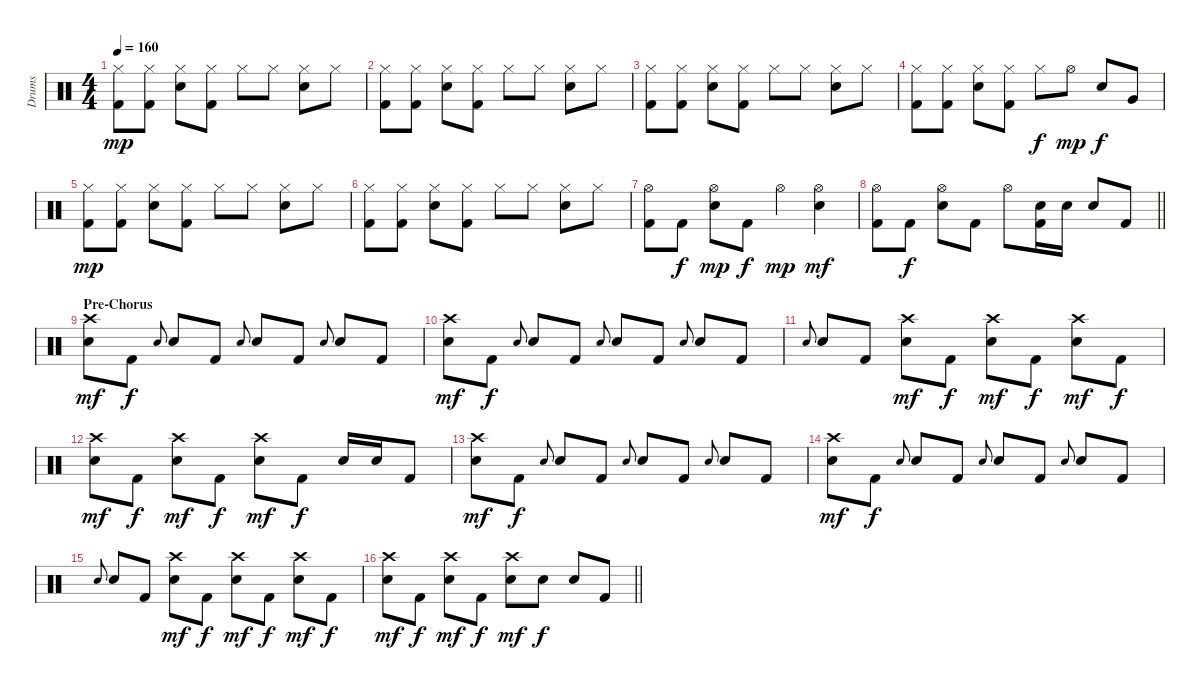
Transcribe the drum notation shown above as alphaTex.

\track ("Drums" "Drums") {instrument percussion}
\staff {score}
\articulation defaults
\ts (4 4)
\tempo 160
\clef neutral
\ks c
("Hi-Hat (closed)" "Kick (hit) 2").8{dy mp} ("Hi-Hat (closed)" "Kick (hit) 2").8 ("Hi-Hat (closed)" "Electric Snare (hit)").8 ("Hi-Hat (closed)" "Kick (hit) 2").8 "Hi-Hat (closed)".8 "Hi-Hat (closed)".8 ("Hi-Hat (closed)" "Electric Snare (hit)").8 "Hi-Hat (closed)".8 |
("Hi-Hat (closed)" "Kick (hit) 2").8 ("Hi-Hat (closed)" "Kick (hit) 2").8 ("Hi-Hat (closed)" "Electric Snare (hit)").8 ("Hi-Hat (closed)" "Kick (hit) 2").8 "Hi-Hat (closed)".8 "Hi-Hat (closed)".8 ("Hi-Hat (closed)" "Electric Snare (hit)").8 "Hi-Hat (closed)".8 |
("Hi-Hat (closed)" "Kick (hit) 2").8 ("Hi-Hat (closed)" "Kick (hit) 2").8 ("Hi-Hat (closed)" "Electric Snare (hit)").8 ("Hi-Hat (closed)" "Kick (hit) 2").8 "Hi-Hat (closed)".8 "Hi-Hat (closed)".8 ("Hi-Hat (closed)" "Electric Snare (hit)").8 "Hi-Hat (closed)".8 |
("Hi-Hat (closed)" "Kick (hit) 2").8 ("Hi-Hat (closed)" "Kick (hit) 2").8 ("Hi-Hat (closed)" "Electric Snare (hit)").8 ("Hi-Hat (closed)" "Kick (hit) 2").8 "Hi-Hat (closed)".8{dy f} "Hi-Hat (open)".8{dy mp} "Electric Snare (hit)".8{dy f} "Very Low Tom (hit)".8 |
("Hi-Hat (closed)" "Kick (hit) 2").8{dy mp} ("Hi-Hat (closed)" "Kick (hit) 2").8 ("Hi-Hat (closed)" "Electric Snare (hit)").8 ("Hi-Hat (closed)" "Kick (hit) 2").8 "Hi-Hat (closed)".8 "Hi-Hat (closed)".8 ("Hi-Hat (closed)" "Electric Snare (hit)").8 "Hi-Hat (closed)".8 |
("Hi-Hat (closed)" "Kick (hit) 2").8 ("Hi-Hat (closed)" "Kick (hit) 2").8 ("Hi-Hat (closed)" "Electric Snare (hit)").8 ("Hi-Hat (closed)" "Kick (hit) 2").8 "Hi-Hat (closed)".8 "Hi-Hat (closed)".8 ("Hi-Hat (closed)" "Electric Snare (hit)").8 "Hi-Hat (closed)".8 |
("Hi-Hat (open)" "Kick (hit) 2").8 "Kick (hit) 2".8{dy f} ("Hi-Hat (open)" "Electric Snare (hit)").8{dy mp} "Kick (hit) 2".8{dy f} "Hi-Hat (open)".4{dy mp} ("Hi-Hat (open)" "Electric Snare (hit)").4{dy mf} |
\barLineRight lightlight
("Hi-Hat (open)" "Kick (hit) 2").8 "Kick (hit) 2".8{dy f} ("Hi-Hat (open)" "Electric Snare (hit)").8 "Kick (hit) 2".8 "Hi-Hat (open)".8 ("Electric Snare (hit)" "Kick (hit) 2").16 "Electric Snare (hit)".16 "Electric Snare (hit)".8 "Kick (hit) 2".8 |
\section ("" "Pre-Chorus")
("Crash high (hit)" "Electric Snare (hit)").8{dy mf} "Kick (hit) 2".8{dy f} "Electric Snare (hit)".8{gr onbeat} "Electric Snare (hit)".8 "Kick (hit) 2".8 "Electric Snare (hit)".8{gr onbeat} "Electric Snare (hit)".8 "Kick (hit) 2".8 "Electric Snare (hit)".8{gr onbeat} "Electric Snare (hit)".8 "Kick (hit) 2".8 |
("Crash high (hit)" "Electric Snare (hit)").8{dy mf} "Kick (hit) 2".8{dy f} "Electric Snare (hit)".8{gr onbeat} "Electric Snare (hit)".8 "Kick (hit) 2".8 "Electric Snare (hit)".8{gr onbeat} "Electric Snare (hit)".8 "Kick (hit) 2".8 "Electric Snare (hit)".8{gr onbeat} "Electric Snare (hit)".8 "Kick (hit) 2".8 |
"Electric Snare (hit)".8{gr onbeat} "Electric Snare (hit)".8 "Kick (hit) 2".8 ("Crash high (hit)" "Electric Snare (hit)").8{dy mf} "Kick (hit) 2".8{dy f} ("Crash high (hit)" "Electric Snare (hit)").8{dy mf} "Kick (hit) 2".8{dy f} ("Crash high (hit)" "Electric Snare (hit)").8{dy mf} "Kick (hit) 2".8{dy f} |
("Crash high (hit)" "Electric Snare (hit)").8{dy mf} "Kick (hit) 2".8{dy f} ("Crash high (hit)" "Electric Snare (hit)").8{dy mf} "Kick (hit) 2".8{dy f} ("Crash high (hit)" "Electric Snare (hit)").8{dy mf} "Kick (hit) 2".8{dy f} "Electric Snare (hit)".16 "Electric Snare (hit)".16 "Kick (hit) 2".8 |
("Crash high (hit)" "Electric Snare (hit)").8{dy mf} "Kick (hit) 2".8{dy f} "Electric Snare (hit)".8{gr onbeat} "Electric Snare (hit)".8 "Kick (hit) 2".8 "Electric Snare (hit)".8{gr onbeat} "Electric Snare (hit)".8 "Kick (hit) 2".8 "Electric Snare (hit)".8{gr onbeat} "Electric Snare (hit)".8 "Kick (hit) 2".8 |
("Crash high (hit)" "Electric Snare (hit)").8{dy mf} "Kick (hit) 2".8{dy f} "Electric Snare (hit)".8{gr onbeat} "Electric Snare (hit)".8 "Kick (hit) 2".8 "Electric Snare (hit)".8{gr onbeat} "Electric Snare (hit)".8 "Kick (hit) 2".8 "Electric Snare (hit)".8{gr onbeat} "Electric Snare (hit)".8 "Kick (hit) 2".8 |
"Electric Snare (hit)".8{gr onbeat} "Electric Snare (hit)".8 "Kick (hit) 2".8 ("Crash high (hit)" "Electric Snare (hit)").8{dy mf} "Kick (hit) 2".8{dy f} ("Crash high (hit)" "Electric Snare (hit)").8{dy mf} "Kick (hit) 2".8{dy f} ("Crash high (hit)" "Electric Snare (hit)").8{dy mf} "Kick (hit) 2".8{dy f} |
\barLineRight lightlight
("Crash high (hit)" "Electric Snare (hit)").8{dy mf} "Kick (hit) 2".8{dy f} ("Crash high (hit)" "Electric Snare (hit)").8{dy mf} "Kick (hit) 2".8{dy f} ("Crash high (hit)" "Electric Snare (hit)").8{dy mf} "Electric Snare (hit)".8{dy f} "Electric Snare (hit)".8 "Kick (hit) 2".8
